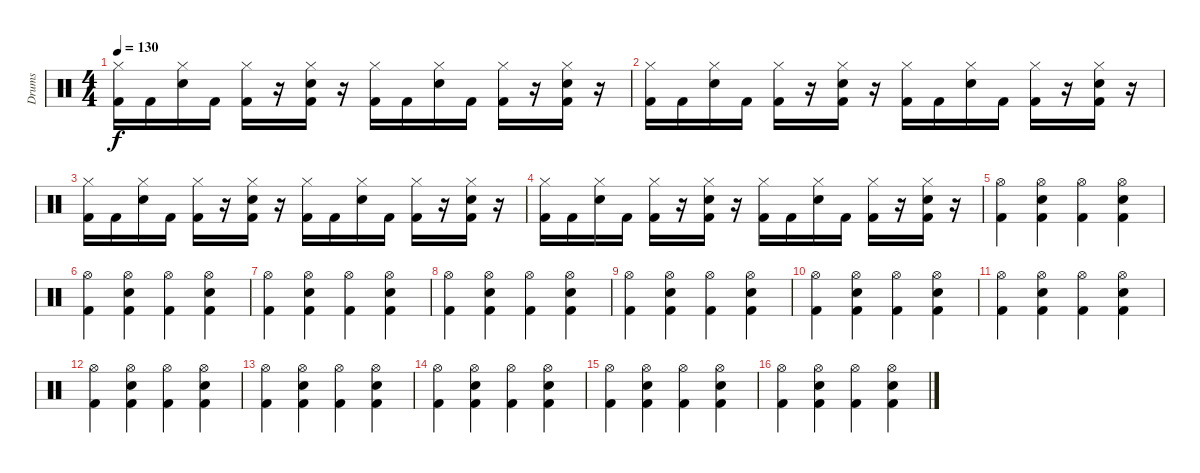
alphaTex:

\track ("Drums" "Drums") {instrument percussion}
\staff {score}
\articulation defaults
\ts (4 4)
\tempo 130
\clef neutral
\ks c
("Kick (hit) 2" "Hi-Hat (closed)").16{dy f} "Kick (hit) 2".16 ("Hi-Hat (closed)" "Electric Snare (hit)").16 "Kick (hit) 2".16 ("Kick (hit) 2" "Hi-Hat (closed)").16 r.16 ("Kick (hit) 2" "Hi-Hat (closed)" "Electric Snare (hit)").16 r.16 ("Kick (hit) 2" "Hi-Hat (closed)").16 "Kick (hit) 2".16 ("Hi-Hat (closed)" "Electric Snare (hit)").16 "Kick (hit) 2".16 ("Kick (hit) 2" "Hi-Hat (closed)").16 r.16 ("Kick (hit) 2" "Hi-Hat (closed)" "Electric Snare (hit)").16 r.16 |
("Kick (hit) 2" "Hi-Hat (closed)").16 "Kick (hit) 2".16 ("Hi-Hat (closed)" "Electric Snare (hit)").16 "Kick (hit) 2".16 ("Kick (hit) 2" "Hi-Hat (closed)").16 r.16 ("Kick (hit) 2" "Hi-Hat (closed)" "Electric Snare (hit)").16 r.16 ("Kick (hit) 2" "Hi-Hat (closed)").16 "Kick (hit) 2".16 ("Hi-Hat (closed)" "Electric Snare (hit)").16 "Kick (hit) 2".16 ("Kick (hit) 2" "Hi-Hat (closed)").16 r.16 ("Kick (hit) 2" "Hi-Hat (closed)" "Electric Snare (hit)").16 r.16 |
("Kick (hit) 2" "Hi-Hat (closed)").16 "Kick (hit) 2".16 ("Hi-Hat (closed)" "Electric Snare (hit)").16 "Kick (hit) 2".16 ("Kick (hit) 2" "Hi-Hat (closed)").16 r.16 ("Kick (hit) 2" "Hi-Hat (closed)" "Electric Snare (hit)").16 r.16 ("Kick (hit) 2" "Hi-Hat (closed)").16 "Kick (hit) 2".16 ("Hi-Hat (closed)" "Electric Snare (hit)").16 "Kick (hit) 2".16 ("Kick (hit) 2" "Hi-Hat (closed)").16 r.16 ("Kick (hit) 2" "Hi-Hat (closed)" "Electric Snare (hit)").16 r.16 |
("Kick (hit) 2" "Hi-Hat (closed)").16 "Kick (hit) 2".16 ("Hi-Hat (closed)" "Electric Snare (hit)").16 "Kick (hit) 2".16 ("Kick (hit) 2" "Hi-Hat (closed)").16 r.16 ("Kick (hit) 2" "Hi-Hat (closed)" "Electric Snare (hit)").16 r.16 ("Kick (hit) 2" "Hi-Hat (closed)").16 "Kick (hit) 2".16 ("Hi-Hat (closed)" "Electric Snare (hit)").16 "Kick (hit) 2".16 ("Kick (hit) 2" "Hi-Hat (closed)").16 r.16 ("Kick (hit) 2" "Hi-Hat (closed)" "Electric Snare (hit)").16 r.16 |
("Hi-Hat (open)" "Kick (hit) 2").4 ("Hi-Hat (open)" "Electric Snare (hit)" "Kick (hit) 2").4 ("Hi-Hat (open)" "Kick (hit) 2").4 ("Hi-Hat (open)" "Electric Snare (hit)" "Kick (hit) 2").4 |
("Hi-Hat (open)" "Kick (hit) 2").4 ("Hi-Hat (open)" "Electric Snare (hit)" "Kick (hit) 2").4 ("Hi-Hat (open)" "Kick (hit) 2").4 ("Hi-Hat (open)" "Electric Snare (hit)" "Kick (hit) 2").4 |
("Hi-Hat (open)" "Kick (hit) 2").4 ("Hi-Hat (open)" "Electric Snare (hit)" "Kick (hit) 2").4 ("Hi-Hat (open)" "Kick (hit) 2").4 ("Hi-Hat (open)" "Electric Snare (hit)" "Kick (hit) 2").4 |
("Hi-Hat (open)" "Kick (hit) 2").4 ("Hi-Hat (open)" "Electric Snare (hit)" "Kick (hit) 2").4 ("Hi-Hat (open)" "Kick (hit) 2").4 ("Hi-Hat (open)" "Electric Snare (hit)" "Kick (hit) 2").4 |
("Hi-Hat (open)" "Kick (hit) 2").4 ("Hi-Hat (open)" "Electric Snare (hit)" "Kick (hit) 2").4 ("Hi-Hat (open)" "Kick (hit) 2").4 ("Hi-Hat (open)" "Electric Snare (hit)" "Kick (hit) 2").4 |
("Hi-Hat (open)" "Kick (hit) 2").4 ("Hi-Hat (open)" "Electric Snare (hit)" "Kick (hit) 2").4 ("Hi-Hat (open)" "Kick (hit) 2").4 ("Hi-Hat (open)" "Electric Snare (hit)" "Kick (hit) 2").4 |
("Hi-Hat (open)" "Kick (hit) 2").4 ("Hi-Hat (open)" "Electric Snare (hit)" "Kick (hit) 2").4 ("Hi-Hat (open)" "Kick (hit) 2").4 ("Hi-Hat (open)" "Electric Snare (hit)" "Kick (hit) 2").4 |
("Hi-Hat (open)" "Kick (hit) 2").4 ("Hi-Hat (open)" "Electric Snare (hit)" "Kick (hit) 2").4 ("Hi-Hat (open)" "Kick (hit) 2").4 ("Hi-Hat (open)" "Electric Snare (hit)" "Kick (hit) 2").4 |
("Hi-Hat (open)" "Kick (hit) 2").4 ("Hi-Hat (open)" "Electric Snare (hit)" "Kick (hit) 2").4 ("Hi-Hat (open)" "Kick (hit) 2").4 ("Hi-Hat (open)" "Electric Snare (hit)" "Kick (hit) 2").4 |
("Hi-Hat (open)" "Kick (hit) 2").4 ("Hi-Hat (open)" "Electric Snare (hit)" "Kick (hit) 2").4 ("Hi-Hat (open)" "Kick (hit) 2").4 ("Hi-Hat (open)" "Electric Snare (hit)" "Kick (hit) 2").4 |
("Hi-Hat (open)" "Kick (hit) 2").4 ("Hi-Hat (open)" "Electric Snare (hit)" "Kick (hit) 2").4 ("Hi-Hat (open)" "Kick (hit) 2").4 ("Hi-Hat (open)" "Electric Snare (hit)" "Kick (hit) 2").4 |
("Hi-Hat (open)" "Kick (hit) 2").4 ("Hi-Hat (open)" "Electric Snare (hit)" "Kick (hit) 2").4 ("Hi-Hat (open)" "Kick (hit) 2").4 ("Hi-Hat (open)" "Electric Snare (hit)" "Kick (hit) 2").4
